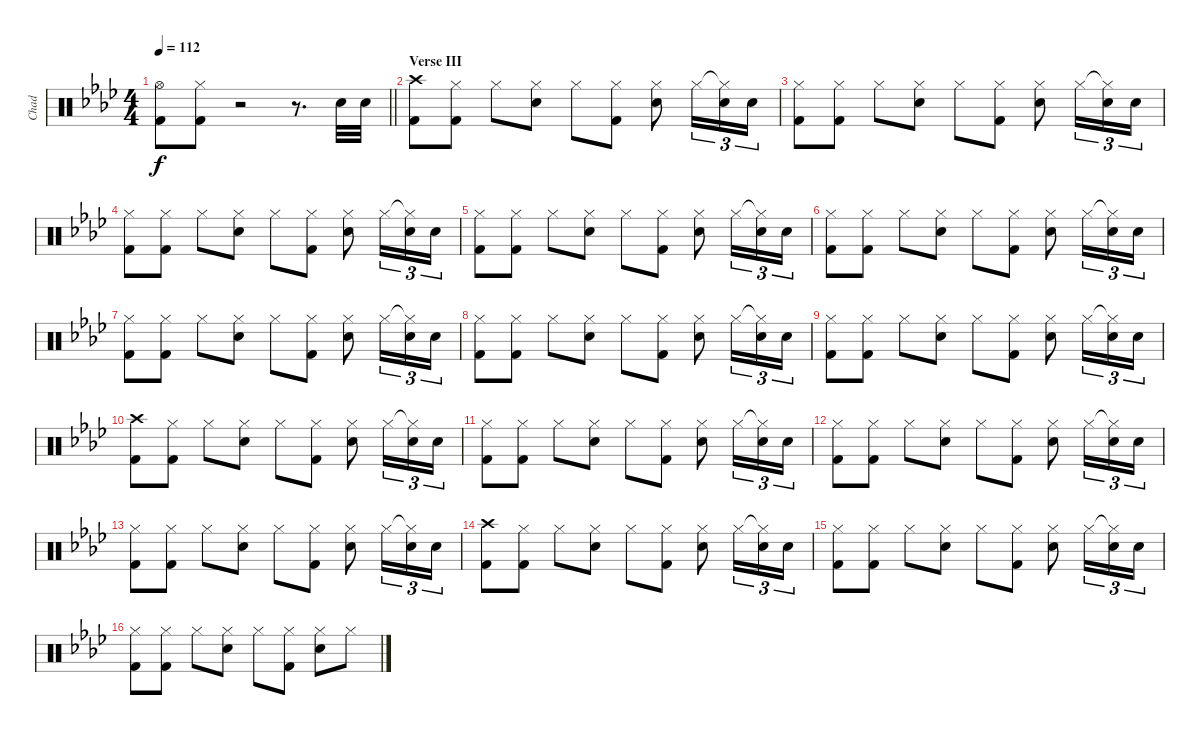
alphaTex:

\track ("Chad" "Chad") {instrument percussion}
\staff {score}
\articulation defaults
\ts (4 4)
\tempo 112
\clef neutral
\barLineRight lightlight
\ks ab
("Hi-Hat (open)" "Kick (hit) 2").8{dy f} ("Hi-Hat (closed)" "Kick (hit) 2").8 r.2 r.8{d} "Snare (hit) 2".32 "Snare (hit) 2".32 |
\section ("" "Verse III")
("Crash high (hit)" "Kick (hit) 2").8 ("Hi-Hat (closed)" "Kick (hit) 2").8 "Hi-Hat (closed)".8 ("Hi-Hat (closed)" "Snare (hit) 2").8 "Hi-Hat (closed)".8 ("Hi-Hat (closed)" "Kick (hit) 2").8 ("Hi-Hat (closed)" "Snare (hit) 2").8 "Hi-Hat (closed)".16{tu (3 2)} ("Hi-Hat (closed)"{t} "Snare (hit) 2").16{tu (3 2)} "Snare (hit) 2".16{tu (3 2)} |
("Hi-Hat (closed)" "Kick (hit) 2").8 ("Hi-Hat (closed)" "Kick (hit) 2").8 "Hi-Hat (closed)".8 ("Hi-Hat (closed)" "Snare (hit) 2").8 "Hi-Hat (closed)".8 ("Hi-Hat (closed)" "Kick (hit) 2").8 ("Hi-Hat (closed)" "Snare (hit) 2").8 "Hi-Hat (closed)".16{tu (3 2)} ("Hi-Hat (closed)"{t} "Snare (hit) 2").16{tu (3 2)} "Snare (hit) 2".16{tu (3 2)} |
("Hi-Hat (closed)" "Kick (hit) 2").8 ("Hi-Hat (closed)" "Kick (hit) 2").8 "Hi-Hat (closed)".8 ("Hi-Hat (closed)" "Snare (hit) 2").8 "Hi-Hat (closed)".8 ("Hi-Hat (closed)" "Kick (hit) 2").8 ("Hi-Hat (closed)" "Snare (hit) 2").8 "Hi-Hat (closed)".16{tu (3 2)} ("Hi-Hat (closed)"{t} "Snare (hit) 2").16{tu (3 2)} "Snare (hit) 2".16{tu (3 2)} |
("Hi-Hat (closed)" "Kick (hit) 2").8 ("Hi-Hat (closed)" "Kick (hit) 2").8 "Hi-Hat (closed)".8 ("Hi-Hat (closed)" "Snare (hit) 2").8 "Hi-Hat (closed)".8 ("Hi-Hat (closed)" "Kick (hit) 2").8 ("Hi-Hat (closed)" "Snare (hit) 2").8 "Hi-Hat (closed)".16{tu (3 2)} ("Hi-Hat (closed)"{t} "Snare (hit) 2").16{tu (3 2)} "Snare (hit) 2".16{tu (3 2)} |
("Hi-Hat (closed)" "Kick (hit) 2").8 ("Hi-Hat (closed)" "Kick (hit) 2").8 "Hi-Hat (closed)".8 ("Hi-Hat (closed)" "Snare (hit) 2").8 "Hi-Hat (closed)".8 ("Hi-Hat (closed)" "Kick (hit) 2").8 ("Hi-Hat (closed)" "Snare (hit) 2").8 "Hi-Hat (closed)".16{tu (3 2)} ("Hi-Hat (closed)"{t} "Snare (hit) 2").16{tu (3 2)} "Snare (hit) 2".16{tu (3 2)} |
("Hi-Hat (closed)" "Kick (hit) 2").8 ("Hi-Hat (closed)" "Kick (hit) 2").8 "Hi-Hat (closed)".8 ("Hi-Hat (closed)" "Snare (hit) 2").8 "Hi-Hat (closed)".8 ("Hi-Hat (closed)" "Kick (hit) 2").8 ("Hi-Hat (closed)" "Snare (hit) 2").8 "Hi-Hat (closed)".16{tu (3 2)} ("Hi-Hat (closed)"{t} "Snare (hit) 2").16{tu (3 2)} "Snare (hit) 2".16{tu (3 2)} |
("Hi-Hat (closed)" "Kick (hit) 2").8 ("Hi-Hat (closed)" "Kick (hit) 2").8 "Hi-Hat (closed)".8 ("Hi-Hat (closed)" "Snare (hit) 2").8 "Hi-Hat (closed)".8 ("Hi-Hat (closed)" "Kick (hit) 2").8 ("Hi-Hat (closed)" "Snare (hit) 2").8 "Hi-Hat (closed)".16{tu (3 2)} ("Hi-Hat (closed)"{t} "Snare (hit) 2").16{tu (3 2)} "Snare (hit) 2".16{tu (3 2)} |
("Hi-Hat (closed)" "Kick (hit) 2").8 ("Hi-Hat (closed)" "Kick (hit) 2").8 "Hi-Hat (closed)".8 ("Hi-Hat (closed)" "Snare (hit) 2").8 "Hi-Hat (closed)".8 ("Hi-Hat (closed)" "Kick (hit) 2").8 ("Hi-Hat (closed)" "Snare (hit) 2").8 "Hi-Hat (closed)".16{tu (3 2)} ("Hi-Hat (closed)"{t} "Snare (hit) 2").16{tu (3 2)} "Snare (hit) 2".16{tu (3 2)} |
("Crash high (hit)" "Kick (hit) 2").8 ("Hi-Hat (closed)" "Kick (hit) 2").8 "Hi-Hat (closed)".8 ("Hi-Hat (closed)" "Snare (hit) 2").8 "Hi-Hat (closed)".8 ("Hi-Hat (closed)" "Kick (hit) 2").8 ("Hi-Hat (closed)" "Snare (hit) 2").8 "Hi-Hat (closed)".16{tu (3 2)} ("Hi-Hat (closed)"{t} "Snare (hit) 2").16{tu (3 2)} "Snare (hit) 2".16{tu (3 2)} |
("Hi-Hat (closed)" "Kick (hit) 2").8 ("Hi-Hat (closed)" "Kick (hit) 2").8 "Hi-Hat (closed)".8 ("Hi-Hat (closed)" "Snare (hit) 2").8 "Hi-Hat (closed)".8 ("Hi-Hat (closed)" "Kick (hit) 2").8 ("Hi-Hat (closed)" "Snare (hit) 2").8 "Hi-Hat (closed)".16{tu (3 2)} ("Hi-Hat (closed)"{t} "Snare (hit) 2").16{tu (3 2)} "Snare (hit) 2".16{tu (3 2)} |
("Hi-Hat (closed)" "Kick (hit) 2").8 ("Hi-Hat (closed)" "Kick (hit) 2").8 "Hi-Hat (closed)".8 ("Hi-Hat (closed)" "Snare (hit) 2").8 "Hi-Hat (closed)".8 ("Hi-Hat (closed)" "Kick (hit) 2").8 ("Hi-Hat (closed)" "Snare (hit) 2").8 "Hi-Hat (closed)".16{tu (3 2)} ("Hi-Hat (closed)"{t} "Snare (hit) 2").16{tu (3 2)} "Snare (hit) 2".16{tu (3 2)} |
("Hi-Hat (closed)" "Kick (hit) 2").8 ("Hi-Hat (closed)" "Kick (hit) 2").8 "Hi-Hat (closed)".8 ("Hi-Hat (closed)" "Snare (hit) 2").8 "Hi-Hat (closed)".8 ("Hi-Hat (closed)" "Kick (hit) 2").8 ("Hi-Hat (closed)" "Snare (hit) 2").8 "Hi-Hat (closed)".16{tu (3 2)} ("Hi-Hat (closed)"{t} "Snare (hit) 2").16{tu (3 2)} "Snare (hit) 2".16{tu (3 2)} |
("Crash high (hit)" "Kick (hit) 2").8 ("Hi-Hat (closed)" "Kick (hit) 2").8 "Hi-Hat (closed)".8 ("Hi-Hat (closed)" "Snare (hit) 2").8 "Hi-Hat (closed)".8 ("Hi-Hat (closed)" "Kick (hit) 2").8 ("Hi-Hat (closed)" "Snare (hit) 2").8 "Hi-Hat (closed)".16{tu (3 2)} ("Hi-Hat (closed)"{t} "Snare (hit) 2").16{tu (3 2)} "Snare (hit) 2".16{tu (3 2)} |
("Hi-Hat (closed)" "Kick (hit) 2").8 ("Hi-Hat (closed)" "Kick (hit) 2").8 "Hi-Hat (closed)".8 ("Hi-Hat (closed)" "Snare (hit) 2").8 "Hi-Hat (closed)".8 ("Hi-Hat (closed)" "Kick (hit) 2").8 ("Hi-Hat (closed)" "Snare (hit) 2").8 "Hi-Hat (closed)".16{tu (3 2)} ("Hi-Hat (closed)"{t} "Snare (hit) 2").16{tu (3 2)} "Snare (hit) 2".16{tu (3 2)} |
("Hi-Hat (closed)" "Kick (hit) 2").8 ("Hi-Hat (closed)" "Kick (hit) 2").8 "Hi-Hat (closed)".8 ("Hi-Hat (closed)" "Snare (hit) 2").8 "Hi-Hat (closed)".8 ("Hi-Hat (closed)" "Kick (hit) 2").8 ("Hi-Hat (closed)" "Snare (hit) 2").8 "Hi-Hat (closed)".8
